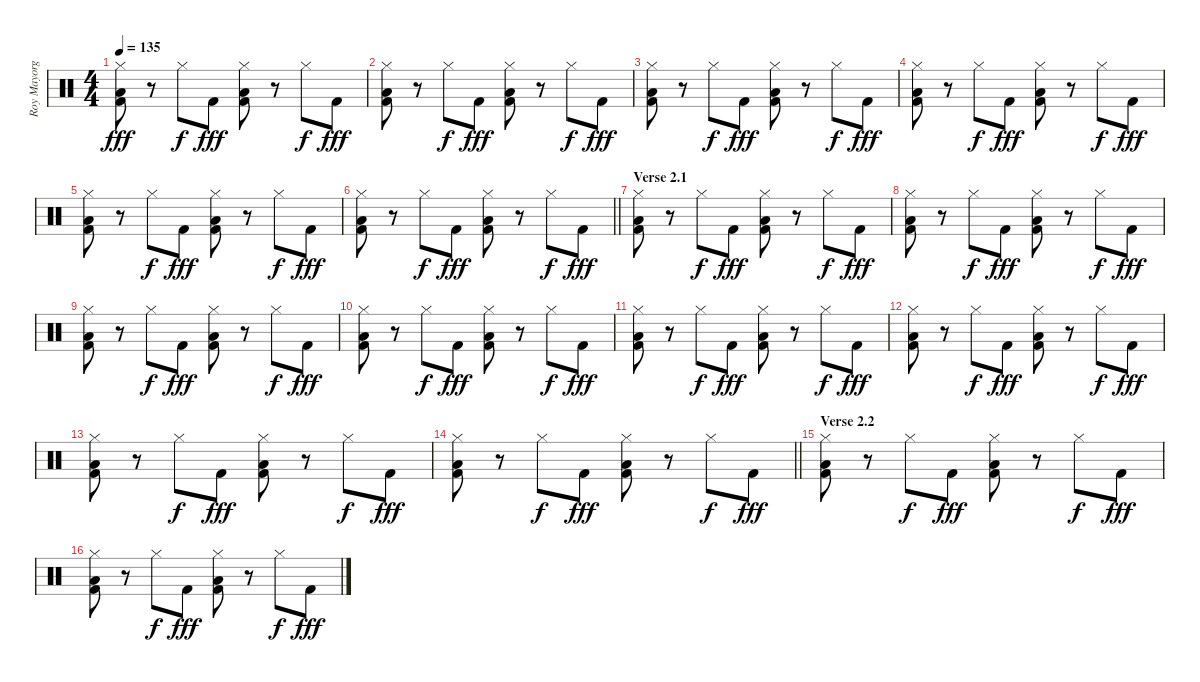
\track ("Roy Mayorga" "Roy Mayorg") {instrument percussion}
\staff {score}
\articulation defaults
\ts (4 4)
\tempo 135
\clef neutral
\ks c
("Hi-Hat (closed)" "Low Floor Tom (hit)" "Kick (hit) 2").8{dy fff} r.8 "Hi-Hat (closed)".8{dy f} "Kick (hit) 2".8{dy fff} ("Hi-Hat (closed)" "Low Tom (hit)" "Kick (hit) 2").8 r.8 "Hi-Hat (closed)".8{dy f} "Kick (hit) 2".8{dy fff} |
("Hi-Hat (closed)" "Low Floor Tom (hit)" "Kick (hit) 2").8 r.8 "Hi-Hat (closed)".8{dy f} "Kick (hit) 2".8{dy fff} ("Hi-Hat (closed)" "Low Tom (hit)" "Kick (hit) 2").8 r.8 "Hi-Hat (closed)".8{dy f} "Kick (hit) 2".8{dy fff} |
("Hi-Hat (closed)" "Low Floor Tom (hit)" "Kick (hit) 2").8 r.8 "Hi-Hat (closed)".8{dy f} "Kick (hit) 2".8{dy fff} ("Hi-Hat (closed)" "Low Tom (hit)" "Kick (hit) 2").8 r.8 "Hi-Hat (closed)".8{dy f} "Kick (hit) 2".8{dy fff} |
("Hi-Hat (closed)" "Low Floor Tom (hit)" "Kick (hit) 2").8 r.8 "Hi-Hat (closed)".8{dy f} "Kick (hit) 2".8{dy fff} ("Hi-Hat (closed)" "Low Tom (hit)" "Kick (hit) 2").8 r.8 "Hi-Hat (closed)".8{dy f} "Kick (hit) 2".8{dy fff} |
("Hi-Hat (closed)" "Low Floor Tom (hit)" "Kick (hit) 2").8 r.8 "Hi-Hat (closed)".8{dy f} "Kick (hit) 2".8{dy fff} ("Hi-Hat (closed)" "Low Tom (hit)" "Kick (hit) 2").8 r.8 "Hi-Hat (closed)".8{dy f} "Kick (hit) 2".8{dy fff} |
\barLineRight lightlight
("Hi-Hat (closed)" "Low Floor Tom (hit)" "Kick (hit) 2").8 r.8 "Hi-Hat (closed)".8{dy f} "Kick (hit) 2".8{dy fff} ("Hi-Hat (closed)" "Low Tom (hit)" "Kick (hit) 2").8 r.8 "Hi-Hat (closed)".8{dy f} "Kick (hit) 2".8{dy fff} |
\section ("" "Verse 2.1")
("Hi-Hat (closed)" "Low Floor Tom (hit)" "Kick (hit) 2").8 r.8 "Hi-Hat (closed)".8{dy f} "Kick (hit) 2".8{dy fff} ("Hi-Hat (closed)" "Low Tom (hit)" "Kick (hit) 2").8 r.8 "Hi-Hat (closed)".8{dy f} "Kick (hit) 2".8{dy fff} |
("Hi-Hat (closed)" "Low Floor Tom (hit)" "Kick (hit) 2").8 r.8 "Hi-Hat (closed)".8{dy f} "Kick (hit) 2".8{dy fff} ("Hi-Hat (closed)" "Low Tom (hit)" "Kick (hit) 2").8 r.8 "Hi-Hat (closed)".8{dy f} "Kick (hit) 2".8{dy fff} |
("Hi-Hat (closed)" "Low Floor Tom (hit)" "Kick (hit) 2").8 r.8 "Hi-Hat (closed)".8{dy f} "Kick (hit) 2".8{dy fff} ("Hi-Hat (closed)" "Low Tom (hit)" "Kick (hit) 2").8 r.8 "Hi-Hat (closed)".8{dy f} "Kick (hit) 2".8{dy fff} |
("Hi-Hat (closed)" "Low Floor Tom (hit)" "Kick (hit) 2").8 r.8 "Hi-Hat (closed)".8{dy f} "Kick (hit) 2".8{dy fff} ("Hi-Hat (closed)" "Low Tom (hit)" "Kick (hit) 2").8 r.8 "Hi-Hat (closed)".8{dy f} "Kick (hit) 2".8{dy fff} |
("Hi-Hat (closed)" "Low Floor Tom (hit)" "Kick (hit) 2").8 r.8 "Hi-Hat (closed)".8{dy f} "Kick (hit) 2".8{dy fff} ("Hi-Hat (closed)" "Low Tom (hit)" "Kick (hit) 2").8 r.8 "Hi-Hat (closed)".8{dy f} "Kick (hit) 2".8{dy fff} |
("Hi-Hat (closed)" "Low Floor Tom (hit)" "Kick (hit) 2").8 r.8 "Hi-Hat (closed)".8{dy f} "Kick (hit) 2".8{dy fff} ("Hi-Hat (closed)" "Low Tom (hit)" "Kick (hit) 2").8 r.8 "Hi-Hat (closed)".8{dy f} "Kick (hit) 2".8{dy fff} |
("Hi-Hat (closed)" "Low Floor Tom (hit)" "Kick (hit) 2").8 r.8 "Hi-Hat (closed)".8{dy f} "Kick (hit) 2".8{dy fff} ("Hi-Hat (closed)" "Low Tom (hit)" "Kick (hit) 2").8 r.8 "Hi-Hat (closed)".8{dy f} "Kick (hit) 2".8{dy fff} |
\barLineRight lightlight
("Hi-Hat (closed)" "Low Floor Tom (hit)" "Kick (hit) 2").8 r.8 "Hi-Hat (closed)".8{dy f} "Kick (hit) 2".8{dy fff} ("Hi-Hat (closed)" "Low Tom (hit)" "Kick (hit) 2").8 r.8 "Hi-Hat (closed)".8{dy f} "Kick (hit) 2".8{dy fff} |
\section ("" "Verse 2.2")
("Hi-Hat (closed)" "Low Floor Tom (hit)" "Kick (hit) 2").8 r.8 "Hi-Hat (closed)".8{dy f} "Kick (hit) 2".8{dy fff} ("Hi-Hat (closed)" "Low Tom (hit)" "Kick (hit) 2").8 r.8 "Hi-Hat (closed)".8{dy f} "Kick (hit) 2".8{dy fff} |
("Hi-Hat (closed)" "Low Floor Tom (hit)" "Kick (hit) 2").8 r.8 "Hi-Hat (closed)".8{dy f} "Kick (hit) 2".8{dy fff} ("Hi-Hat (closed)" "Low Tom (hit)" "Kick (hit) 2").8 r.8 "Hi-Hat (closed)".8{dy f} "Kick (hit) 2".8{dy fff}
